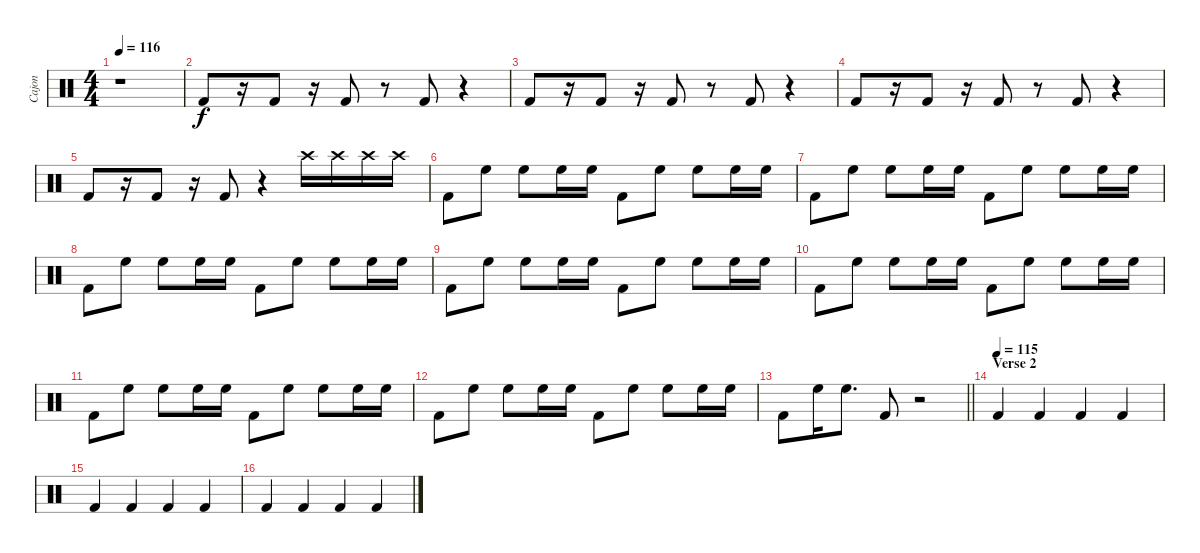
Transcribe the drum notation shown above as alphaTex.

\track ("Cajon" "Cajon") {instrument percussion}
\staff {score}
\articulation defaults
\ts (4 4)
\tempo 116
\clef neutral
\ks c
r.1{dy f} |
"Kick (hit) 2".8 r.16 "Kick (hit) 2".8 r.16 "Kick (hit) 2".8 r.8 "Kick (hit) 2".8 r.4 |
"Kick (hit) 2".8 r.16 "Kick (hit) 2".8 r.16 "Kick (hit) 2".8 r.8 "Kick (hit) 2".8 r.4 |
"Kick (hit) 2".8 r.16 "Kick (hit) 2".8 r.16 "Kick (hit) 2".8 r.8 "Kick (hit) 2".8 r.4 |
"Kick (hit) 2".8 r.16 "Kick (hit) 2".8 r.16 "Kick (hit) 2".8 r.4{volume 0} "Crash high (hit)".16{volume 10} "Crash high (hit)".16 "Crash high (hit)".16 "Crash high (hit)".16 |
"Kick (hit) 2".8 "High Floor Tom (hit)".8 "High Floor Tom (hit)".8 "High Floor Tom (hit)".16 "High Floor Tom (hit)".16 "Kick (hit) 2".8 "High Floor Tom (hit)".8 "High Floor Tom (hit)".8 "High Floor Tom (hit)".16 "High Floor Tom (hit)".16 |
"Kick (hit) 2".8 "High Floor Tom (hit)".8 "High Floor Tom (hit)".8 "High Floor Tom (hit)".16 "High Floor Tom (hit)".16 "Kick (hit) 2".8 "High Floor Tom (hit)".8 "High Floor Tom (hit)".8 "High Floor Tom (hit)".16 "High Floor Tom (hit)".16 |
"Kick (hit) 2".8 "High Floor Tom (hit)".8 "High Floor Tom (hit)".8 "High Floor Tom (hit)".16 "High Floor Tom (hit)".16 "Kick (hit) 2".8 "High Floor Tom (hit)".8 "High Floor Tom (hit)".8 "High Floor Tom (hit)".16 "High Floor Tom (hit)".16 |
"Kick (hit) 2".8 "High Floor Tom (hit)".8 "High Floor Tom (hit)".8 "High Floor Tom (hit)".16 "High Floor Tom (hit)".16 "Kick (hit) 2".8 "High Floor Tom (hit)".8 "High Floor Tom (hit)".8 "High Floor Tom (hit)".16 "High Floor Tom (hit)".16 |
"Kick (hit) 2".8 "High Floor Tom (hit)".8 "High Floor Tom (hit)".8 "High Floor Tom (hit)".16 "High Floor Tom (hit)".16 "Kick (hit) 2".8 "High Floor Tom (hit)".8 "High Floor Tom (hit)".8 "High Floor Tom (hit)".16 "High Floor Tom (hit)".16 |
"Kick (hit) 2".8 "High Floor Tom (hit)".8 "High Floor Tom (hit)".8 "High Floor Tom (hit)".16 "High Floor Tom (hit)".16 "Kick (hit) 2".8 "High Floor Tom (hit)".8 "High Floor Tom (hit)".8 "High Floor Tom (hit)".16 "High Floor Tom (hit)".16 |
"Kick (hit) 2".8 "High Floor Tom (hit)".8 "High Floor Tom (hit)".8 "High Floor Tom (hit)".16 "High Floor Tom (hit)".16 "Kick (hit) 2".8 "High Floor Tom (hit)".8 "High Floor Tom (hit)".8 "High Floor Tom (hit)".16 "High Floor Tom (hit)".16 |
\barLineRight lightlight "Kick (hit) 2".8 "High Floor Tom (hit)".16 "High Floor Tom (hit)".8{d} "Kick (hit) 2".8
r.2 |
\section ("" "Verse 2")
\tempo (115)
"Kick (hit) 2".4 "Kick (hit) 2".4 "Kick (hit) 2".4 "Kick (hit) 2".4 |
"Kick (hit) 2".4 "Kick (hit) 2".4 "Kick (hit) 2".4 "Kick (hit) 2".4 |
"Kick (hit) 2".4 "Kick (hit) 2".4 "Kick (hit) 2".4 "Kick (hit) 2".4
